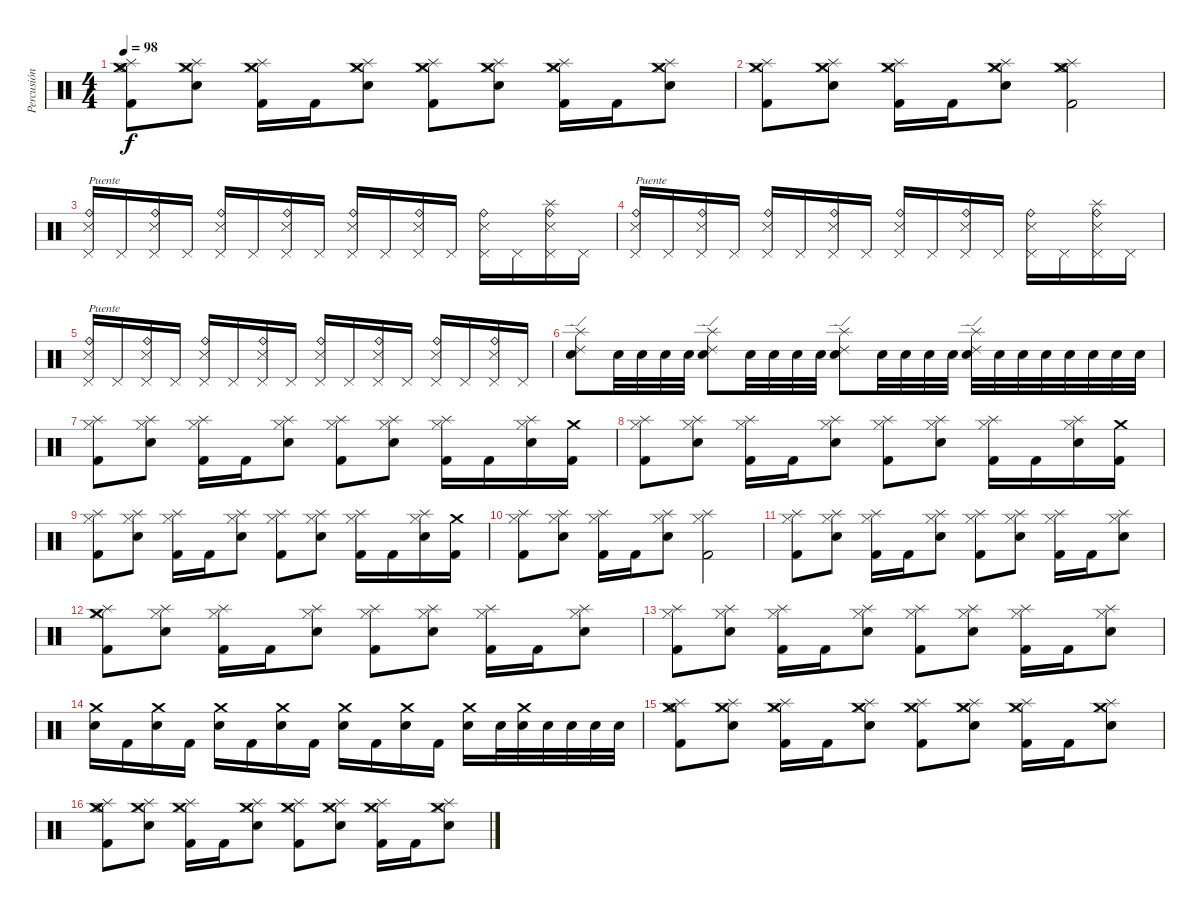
\track ("Percusión" "Percusión") {instrument percussion}
\staff {score}
\articulation defaults
\ts (4 4)
\tempo 98
\clef neutral
\ks c
("Hi-Hat (closed)" "Crash medium (hit)" "Hi-Hat (open)" "Splash (hit)" "Kick (hit) 2").8{dy f} ("Hi-Hat (closed)" "Crash medium (hit)" "Splash (hit)" "Snare (hit) 2").8 ("Hi-Hat (closed)" "Crash medium (hit)" "Splash (hit)" "Kick (hit) 2").16 "Kick (hit) 2".16 ("Hi-Hat (closed)" "Crash medium (hit)" "Splash (hit)" "Snare (hit) 2").8 ("Hi-Hat (closed)" "Crash medium (hit)" "Splash (hit)" "Kick (hit) 2").8 ("Hi-Hat (closed)" "Crash medium (hit)" "Splash (hit)" "Snare (hit) 2").8 ("Hi-Hat (closed)" "Crash medium (hit)" "Splash (hit)" "Kick (hit) 2").16 "Kick (hit) 2".16 ("Hi-Hat (closed)" "Crash medium (hit)" "Splash (hit)" "Snare (hit) 2").8 |
("Hi-Hat (closed)" "Crash medium (hit)" "Splash (hit)" "Kick (hit) 2").8 ("Hi-Hat (closed)" "Crash medium (hit)" "Splash (hit)" "Snare (hit) 2").8 ("Hi-Hat (closed)" "Crash medium (hit)" "Splash (hit)" "Kick (hit) 2").16 "Kick (hit) 2".16 ("Hi-Hat (closed)" "Crash medium (hit)" "Splash (hit)" "Snare (hit) 2").8 ("Hi-Hat (closed)" "Crash medium (hit)" "Hi-Hat (open)" "Splash (hit)" "Kick (hit) 2").2 |
("Metronome (hit)" "Ride (bell)" "Pedal Hi-Hat (hit)").16{txt "Puente"} "Pedal Hi-Hat (hit)".16 ("Metronome (hit)" "Ride (bell)" "Pedal Hi-Hat (hit)").16 "Pedal Hi-Hat (hit)".16 ("Metronome (hit)" "Ride (bell)" "Pedal Hi-Hat (hit)").16 "Pedal Hi-Hat (hit)".16 ("Metronome (hit)" "Ride (bell)" "Pedal Hi-Hat (hit)").16 "Pedal Hi-Hat (hit)".16 ("Metronome (hit)" "Ride (bell)" "Pedal Hi-Hat (hit)").16 "Pedal Hi-Hat (hit)".16 ("Metronome (hit)" "Ride (bell)" "Pedal Hi-Hat (hit)").16 "Pedal Hi-Hat (hit)".16 ("Metronome (hit)" "Ride (bell)" "Pedal Hi-Hat (hit)").16 "Pedal Hi-Hat (hit)".16 ("Splash (hit)" "Metronome (hit)" "Ride (bell)" "Pedal Hi-Hat (hit)").16 "Pedal Hi-Hat (hit)".16 |
("Metronome (hit)" "Ride (bell)" "Pedal Hi-Hat (hit)").16{txt "Puente"} "Pedal Hi-Hat (hit)".16 ("Metronome (hit)" "Ride (bell)" "Pedal Hi-Hat (hit)").16 "Pedal Hi-Hat (hit)".16 ("Metronome (hit)" "Ride (bell)" "Pedal Hi-Hat (hit)").16 "Pedal Hi-Hat (hit)".16 ("Metronome (hit)" "Ride (bell)" "Pedal Hi-Hat (hit)").16 "Pedal Hi-Hat (hit)".16 ("Metronome (hit)" "Ride (bell)" "Pedal Hi-Hat (hit)").16 "Pedal Hi-Hat (hit)".16 ("Metronome (hit)" "Ride (bell)" "Pedal Hi-Hat (hit)").16 "Pedal Hi-Hat (hit)".16 ("Metronome (hit)" "Ride (bell)" "Pedal Hi-Hat (hit)").16 "Pedal Hi-Hat (hit)".16 ("Splash (hit)" "Metronome (hit)" "Ride (bell)" "Pedal Hi-Hat (hit)").16 "Pedal Hi-Hat (hit)".16 |
("Metronome (hit)" "Ride (bell)" "Pedal Hi-Hat (hit)").16{txt "Puente"} "Pedal Hi-Hat (hit)".16 ("Metronome (hit)" "Ride (bell)" "Pedal Hi-Hat (hit)").16 "Pedal Hi-Hat (hit)".16 ("Metronome (hit)" "Ride (bell)" "Pedal Hi-Hat (hit)").16 "Pedal Hi-Hat (hit)".16 ("Metronome (hit)" "Ride (bell)" "Pedal Hi-Hat (hit)").16 "Pedal Hi-Hat (hit)".16 ("Metronome (hit)" "Ride (bell)" "Pedal Hi-Hat (hit)").16 "Pedal Hi-Hat (hit)".16 ("Metronome (hit)" "Ride (bell)" "Pedal Hi-Hat (hit)").16 "Pedal Hi-Hat (hit)".16 ("Metronome (hit)" "Ride (bell)" "Pedal Hi-Hat (hit)").16 "Pedal Hi-Hat (hit)".16 ("Metronome (hit)" "Ride (bell)" "Pedal Hi-Hat (hit)").16 "Pedal Hi-Hat (hit)".16 |
("Ride (edge) 2" "Splash (hit)" "Snare (hit) 2").8 "Snare (hit) 2".32 "Snare (hit) 2".32 "Snare (hit) 2".32 "Snare (hit) 2".32 ("Ride (edge) 2" "Splash (hit)" "Snare (hit) 2").8 "Snare (hit) 2".32 "Snare (hit) 2".32 "Snare (hit) 2".32 "Snare (hit) 2".32 ("Ride (edge) 2" "Splash (hit)" "Snare (hit) 2").8 "Snare (hit) 2".32 "Snare (hit) 2".32 "Snare (hit) 2".32 "Snare (hit) 2".32 ("Ride (edge) 2" "Splash (hit)" "Snare (hit) 2").32 "Snare (hit) 2".32 "Snare (hit) 2".32 "Snare (hit) 2".32 "Snare (hit) 2".32 "Snare (hit) 2".32 "Snare (hit) 2".32 "Snare (hit) 2".32 |
("Hi-Hat (closed)" "Splash (hit)" "Kick (hit) 2").8 ("Hi-Hat (closed)" "Splash (hit)" "Snare (hit) 2").8 ("Hi-Hat (closed)" "Splash (hit)" "Kick (hit) 2").16 "Kick (hit) 2".16 ("Hi-Hat (closed)" "Splash (hit)" "Snare (hit) 2").8 ("Hi-Hat (closed)" "Splash (hit)" "Kick (hit) 2").8 ("Hi-Hat (closed)" "Splash (hit)" "Snare (hit) 2").8 ("Hi-Hat (closed)" "Splash (hit)" "Kick (hit) 2").16 "Kick (hit) 2".16 ("Hi-Hat (closed)" "Splash (hit)" "Snare (hit) 2").16 ("Crash medium (hit)" "Kick (hit) 2").16 |
("Hi-Hat (closed)" "Splash (hit)" "Kick (hit) 2").8 ("Hi-Hat (closed)" "Splash (hit)" "Snare (hit) 2").8 ("Hi-Hat (closed)" "Splash (hit)" "Kick (hit) 2").16 "Kick (hit) 2".16 ("Hi-Hat (closed)" "Splash (hit)" "Snare (hit) 2").8 ("Hi-Hat (closed)" "Splash (hit)" "Kick (hit) 2").8 ("Hi-Hat (closed)" "Splash (hit)" "Snare (hit) 2").8 ("Hi-Hat (closed)" "Splash (hit)" "Kick (hit) 2").16 "Kick (hit) 2".16 ("Hi-Hat (closed)" "Splash (hit)" "Snare (hit) 2").16 ("Crash medium (hit)" "Kick (hit) 2").16 |
("Hi-Hat (closed)" "Splash (hit)" "Kick (hit) 2").8 ("Hi-Hat (closed)" "Splash (hit)" "Snare (hit) 2").8 ("Hi-Hat (closed)" "Splash (hit)" "Kick (hit) 2").16 "Kick (hit) 2".16 ("Hi-Hat (closed)" "Splash (hit)" "Snare (hit) 2").8 ("Hi-Hat (closed)" "Splash (hit)" "Kick (hit) 2").8 ("Hi-Hat (closed)" "Splash (hit)" "Snare (hit) 2").8 ("Hi-Hat (closed)" "Splash (hit)" "Kick (hit) 2").16 "Kick (hit) 2".16 ("Hi-Hat (closed)" "Splash (hit)" "Snare (hit) 2").16 ("Crash medium (hit)" "Kick (hit) 2").16 |
("Hi-Hat (closed)" "Splash (hit)" "Kick (hit) 2").8 ("Hi-Hat (closed)" "Splash (hit)" "Snare (hit) 2").8 ("Hi-Hat (closed)" "Splash (hit)" "Kick (hit) 2").16 "Kick (hit) 2".16 ("Hi-Hat (closed)" "Splash (hit)" "Snare (hit) 2").8 ("Hi-Hat (closed)" "Splash (hit)" "Kick (hit) 2").2 |
("Hi-Hat (closed)" "Splash (hit)" "Kick (hit) 2").8 ("Hi-Hat (closed)" "Splash (hit)" "Snare (hit) 2").8 ("Hi-Hat (closed)" "Splash (hit)" "Kick (hit) 2").16 "Kick (hit) 2".16 ("Hi-Hat (closed)" "Splash (hit)" "Snare (hit) 2").8 ("Hi-Hat (closed)" "Splash (hit)" "Kick (hit) 2").8 ("Hi-Hat (closed)" "Splash (hit)" "Snare (hit) 2").8 ("Hi-Hat (closed)" "Splash (hit)" "Kick (hit) 2").16 "Kick (hit) 2".16 ("Hi-Hat (closed)" "Splash (hit)" "Snare (hit) 2").8 |
("Hi-Hat (closed)" "Splash (hit)" "Crash medium (hit)" "Kick (hit) 2").8 ("Hi-Hat (closed)" "Splash (hit)" "Snare (hit) 2").8 ("Hi-Hat (closed)" "Splash (hit)" "Kick (hit) 2").16 "Kick (hit) 2".16 ("Hi-Hat (closed)" "Splash (hit)" "Snare (hit) 2").8 ("Hi-Hat (closed)" "Splash (hit)" "Kick (hit) 2").8 ("Hi-Hat (closed)" "Splash (hit)" "Snare (hit) 2").8 ("Hi-Hat (closed)" "Splash (hit)" "Kick (hit) 2").16 "Kick (hit) 2".16 ("Hi-Hat (closed)" "Splash (hit)" "Snare (hit) 2").8 |
("Hi-Hat (closed)" "Splash (hit)" "Kick (hit) 2").8 ("Hi-Hat (closed)" "Splash (hit)" "Snare (hit) 2").8 ("Hi-Hat (closed)" "Splash (hit)" "Kick (hit) 2").16 "Kick (hit) 2".16 ("Hi-Hat (closed)" "Splash (hit)" "Snare (hit) 2").8 ("Hi-Hat (closed)" "Splash (hit)" "Kick (hit) 2").8 ("Hi-Hat (closed)" "Splash (hit)" "Snare (hit) 2").8 ("Hi-Hat (closed)" "Splash (hit)" "Kick (hit) 2").16 "Kick (hit) 2".16 ("Hi-Hat (closed)" "Splash (hit)" "Snare (hit) 2").8 |
("Crash medium (hit)" "Snare (hit) 2").16 "Kick (hit) 2".16 ("Crash medium (hit)" "Snare (hit) 2").16 "Kick (hit) 2".16 ("Crash medium (hit)" "Snare (hit) 2").16 "Kick (hit) 2".16 ("Crash medium (hit)" "Snare (hit) 2").16 "Kick (hit) 2".16 ("Crash medium (hit)" "Snare (hit) 2").16 "Kick (hit) 2".16 ("Crash medium (hit)" "Snare (hit) 2").16 "Kick (hit) 2".16 ("Crash medium (hit)" "Snare (hit) 2").16 "Snare (hit) 2".32 ("Crash medium (hit)" "Snare (hit) 2").32 "Snare (hit) 2".32 "Snare (hit) 2".32 "Snare (hit) 2".32 "Snare (hit) 2".32 |
("Hi-Hat (closed)" "Crash medium (hit)" "Hi-Hat (open)" "Splash (hit)" "Kick (hit) 2").8 ("Hi-Hat (closed)" "Crash medium (hit)" "Splash (hit)" "Snare (hit) 2").8 ("Hi-Hat (closed)" "Crash medium (hit)" "Splash (hit)" "Kick (hit) 2").16 "Kick (hit) 2".16 ("Hi-Hat (closed)" "Crash medium (hit)" "Splash (hit)" "Snare (hit) 2").8 ("Hi-Hat (closed)" "Crash medium (hit)" "Splash (hit)" "Kick (hit) 2").8 ("Hi-Hat (closed)" "Crash medium (hit)" "Splash (hit)" "Snare (hit) 2").8 ("Hi-Hat (closed)" "Crash medium (hit)" "Splash (hit)" "Kick (hit) 2").16 "Kick (hit) 2".16 ("Hi-Hat (closed)" "Crash medium (hit)" "Splash (hit)" "Snare (hit) 2").8 |
("Hi-Hat (closed)" "Crash medium (hit)" "Hi-Hat (open)" "Splash (hit)" "Kick (hit) 2").8 ("Hi-Hat (closed)" "Crash medium (hit)" "Splash (hit)" "Snare (hit) 2").8 ("Hi-Hat (closed)" "Crash medium (hit)" "Splash (hit)" "Kick (hit) 2").16 "Kick (hit) 2".16 ("Hi-Hat (closed)" "Crash medium (hit)" "Splash (hit)" "Snare (hit) 2").8 ("Hi-Hat (closed)" "Crash medium (hit)" "Splash (hit)" "Kick (hit) 2").8 ("Hi-Hat (closed)" "Crash medium (hit)" "Splash (hit)" "Snare (hit) 2").8 ("Hi-Hat (closed)" "Crash medium (hit)" "Splash (hit)" "Kick (hit) 2").16 "Kick (hit) 2".16 ("Hi-Hat (closed)" "Crash medium (hit)" "Splash (hit)" "Snare (hit) 2").8
